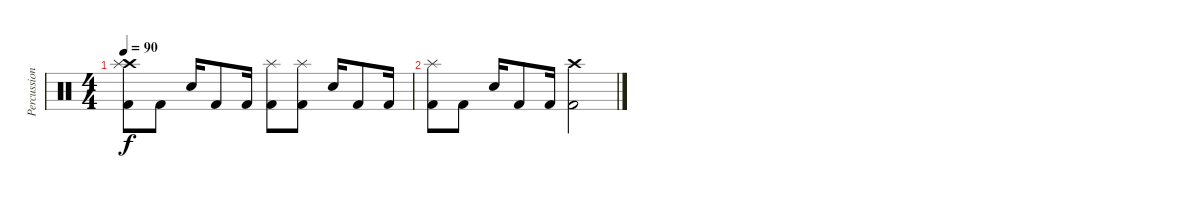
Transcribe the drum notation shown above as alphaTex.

\track ("Percussion" "Percussion") {instrument percussion}
\staff {score}
\articulation defaults
\ts (4 4)
\tempo 90
\clef neutral
\ks c
("Crash high (hit)" "Kick (hit) 2" "Splash (hit)").8{dy f} "Kick (hit) 2".8 "Electric Snare (hit)".16 "Kick (hit) 2".8 "Kick (hit) 2".16 ("Kick (hit) 2" "Splash (hit)").8 ("Kick (hit) 2" "Splash (hit)").8 "Electric Snare (hit)".16 "Kick (hit) 2".8 "Kick (hit) 2".16 |
("Kick (hit) 2" "Splash (hit)").8 "Kick (hit) 2".8 "Electric Snare (hit)".16 "Kick (hit) 2".8 "Kick (hit) 2".16 ("Crash high (hit)" "Kick (hit) 2").2
